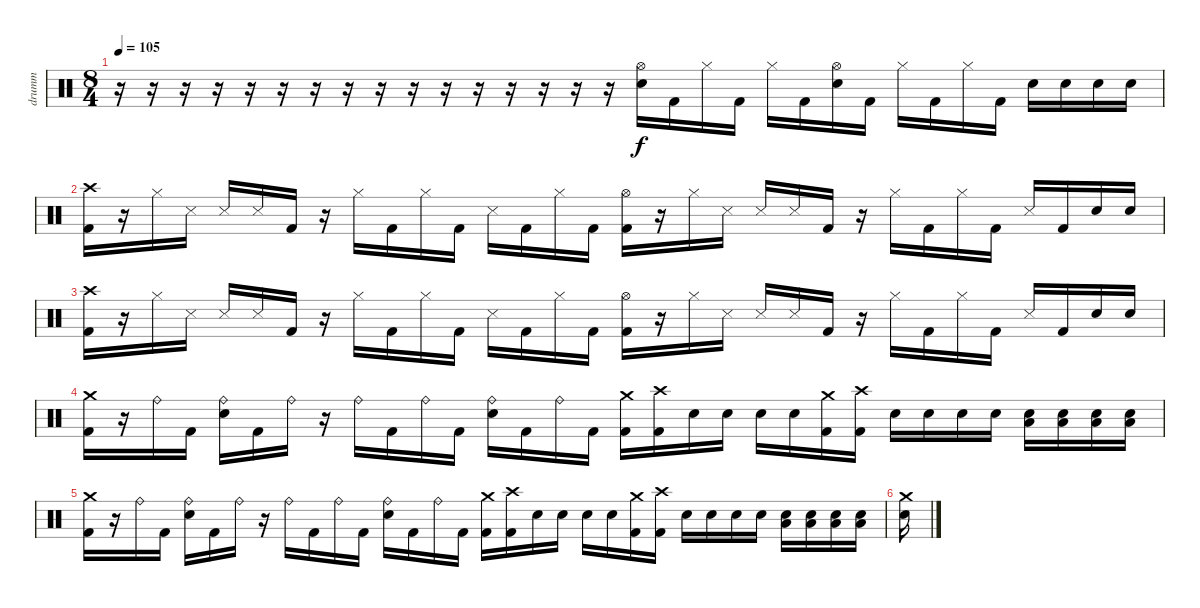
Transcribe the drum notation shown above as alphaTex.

\track ("drumm" "drumm") {instrument percussion}
\staff
\articulation defaults
\ts (8 4)
\tempo 105
\clef neutral
\ks c
r.16{dy f} r.16 r.16 r.16 r.16 r.16 r.16 r.16 r.16 r.16 r.16 r.16 r.16 r.16 r.16 r.16 ("Hi-Hat (open)" "Electric Snare (hit)").16 "Kick (hit) 2".16 "Hi-Hat (closed)".16 "Kick (hit) 2".16 "Hi-Hat (closed)".16 "Kick (hit) 2".16 ("Hi-Hat (open)" "Electric Snare (hit)").16 "Kick (hit) 2".16 "Hi-Hat (closed)".16 "Kick (hit) 2".16 "Hi-Hat (closed)".16 "Kick (hit) 2".16 "Electric Snare (hit)".16 "Electric Snare (hit)".16 "Electric Snare (hit)".16 "Electric Snare (hit)".16 |
("Crash high (hit)" "Kick (hit) 2").16 r.16 "Hi-Hat (closed)".16 "Snare (side stick) 3".16 "Snare (side stick) 3".16 "Snare (side stick) 3".16 "Kick (hit) 2".16 r.16 "Hi-Hat (closed)".16 "Kick (hit) 2".16 "Hi-Hat (closed)".16 "Kick (hit) 2".16 "Snare (side stick) 3".16 "Kick (hit) 2".16 "Hi-Hat (closed)".16 "Kick (hit) 2".16 ("Hi-Hat (open)" "Kick (hit) 2").16 r.16 "Hi-Hat (closed)".16 "Snare (side stick) 3".16 "Snare (side stick) 3".16 "Snare (side stick) 3".16 "Kick (hit) 2".16 r.16 "Hi-Hat (closed)".16 "Kick (hit) 2".16 "Hi-Hat (closed)".16 "Kick (hit) 2".16 "Snare (side stick) 3".16 "Kick (hit) 2".16 "Electric Snare (hit)".16 "Electric Snare (hit)".16 |
("Crash high (hit)" "Kick (hit) 2").16 r.16 "Hi-Hat (closed)".16 "Snare (side stick) 3".16 "Snare (side stick) 3".16 "Snare (side stick) 3".16 "Kick (hit) 2".16 r.16 "Hi-Hat (closed)".16 "Kick (hit) 2".16 "Hi-Hat (closed)".16 "Kick (hit) 2".16 "Snare (side stick) 3".16 "Kick (hit) 2".16 "Hi-Hat (closed)".16 "Kick (hit) 2".16 ("Hi-Hat (open)" "Kick (hit) 2").16 r.16 "Hi-Hat (closed)".16 "Snare (side stick) 3".16 "Snare (side stick) 3".16 "Snare (side stick) 3".16 "Kick (hit) 2".16 r.16 "Hi-Hat (closed)".16 "Kick (hit) 2".16 "Hi-Hat (closed)".16 "Kick (hit) 2".16 "Snare (side stick) 3".16 "Kick (hit) 2".16 "Electric Snare (hit)".16 "Electric Snare (hit)".16 |
("Crash medium (hit)" "Kick (hit) 2").16 r.16 "Ride (bell)".16 "Kick (hit) 2".16 ("Ride (bell)" "Electric Snare (hit)").16 "Kick (hit) 2".16 "Ride (bell)".16 r.16 "Ride (bell)".16 "Kick (hit) 2".16 "Ride (bell)".16 "Kick (hit) 2".16 ("Ride (bell)" "Electric Snare (hit)").16 "Kick (hit) 2".16 "Ride (bell)".16 "Kick (hit) 2".16 ("Crash medium (hit)" "Kick (hit) 2").16 ("Crash high (hit)" "Kick (hit) 2").16 "Electric Snare (hit)".16 "Electric Snare (hit)".16 "Electric Snare (hit)".16 "Electric Snare (hit)".16 ("Crash medium (hit)" "Kick (hit) 2").16 ("Crash high (hit)" "Kick (hit) 2").16 "Electric Snare (hit)".16 "Electric Snare (hit)".16 "Electric Snare (hit)".16 "Electric Snare (hit)".16 ("Low Floor Tom (hit)" "Electric Snare (hit)").16 ("Low Floor Tom (hit)" "Electric Snare (hit)").16 ("Low Floor Tom (hit)" "Electric Snare (hit)").16 ("Low Floor Tom (hit)" "Electric Snare (hit)").16 |
("Crash medium (hit)" "Kick (hit) 2").16 r.16 "Ride (bell)".16 "Kick (hit) 2".16 ("Ride (bell)" "Electric Snare (hit)").16 "Kick (hit) 2".16 "Ride (bell)".16 r.16 "Ride (bell)".16 "Kick (hit) 2".16 "Ride (bell)".16 "Kick (hit) 2".16 ("Ride (bell)" "Electric Snare (hit)").16 "Kick (hit) 2".16 "Ride (bell)".16 "Kick (hit) 2".16 ("Crash medium (hit)" "Kick (hit) 2").16 ("Crash high (hit)" "Kick (hit) 2").16 "Electric Snare (hit)".16 "Electric Snare (hit)".16 "Electric Snare (hit)".16 "Electric Snare (hit)".16 ("Crash medium (hit)" "Kick (hit) 2").16 ("Crash high (hit)" "Kick (hit) 2").16 "Electric Snare (hit)".16 "Electric Snare (hit)".16 "Electric Snare (hit)".16 "Electric Snare (hit)".16 ("Low Floor Tom (hit)" "Electric Snare (hit)").16 ("Low Floor Tom (hit)" "Electric Snare (hit)").16 ("Low Floor Tom (hit)" "Electric Snare (hit)").16 ("Low Floor Tom (hit)" "Electric Snare (hit)").16 |
("Crash medium (hit)" "Electric Snare (hit)").16
